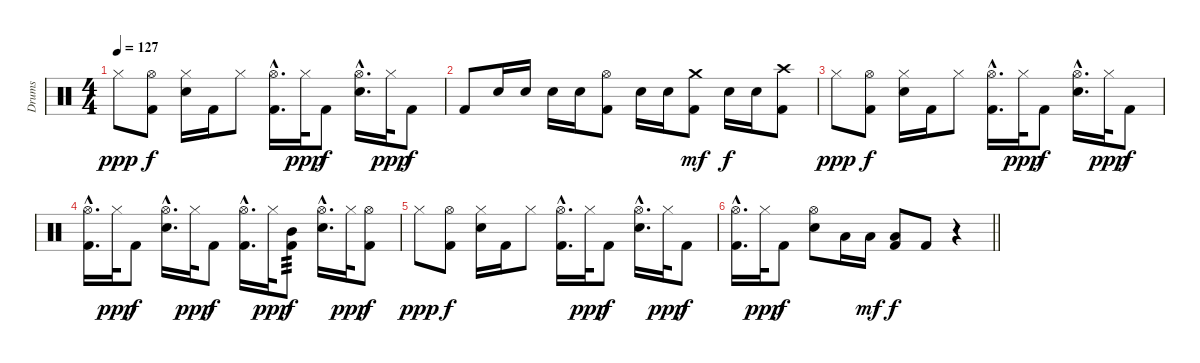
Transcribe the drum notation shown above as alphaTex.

\track ("Drums" "Drums") {instrument percussion}
\staff {score}
\articulation defaults
\ts (4 4)
\tempo 127
\clef neutral
\ks c "Hi-Hat (closed)".8{dy ppp}
("Hi-Hat (open)" "Kick (hit) 2").8{dy f} ("Hi-Hat (closed)" "Electric Snare (hit)").16 "Kick (hit) 2".16 "Hi-Hat (closed)".8 ("Hi-Hat (open)"{hac} "Kick (hit) 2"{hac}).16{d} "Hi-Hat (closed)".32{dy ppp} "Kick (hit) 2".8{dy f} ("Hi-Hat (open)"{hac} "Electric Snare (hit)"{hac}).16{d} "Hi-Hat (closed)".32{dy ppp} "Kick (hit) 2".8{dy f} |
"Kick (hit) 2".8 "Electric Snare (hit)".16 "Electric Snare (hit)".16 "Electric Snare (hit)".16 "Electric Snare (hit)".16 ("Hi-Hat (open)" "Kick (hit) 2").8 "Electric Snare (hit)".16 "Electric Snare (hit)".16 ("Crash medium (hit)" "Kick (hit) 2").8{dy mf} "Electric Snare (hit)".16{dy f} "Electric Snare (hit)".16 ("Crash high (hit)" "Kick (hit) 2").8 |
"Hi-Hat (closed)".8{dy ppp} ("Hi-Hat (open)" "Kick (hit) 2").8{dy f} ("Hi-Hat (closed)" "Electric Snare (hit)").16 "Kick (hit) 2".16 "Hi-Hat (closed)".8 ("Hi-Hat (open)"{hac} "Kick (hit) 2"{hac}).16{d} "Hi-Hat (closed)".32{dy ppp} "Kick (hit) 2".8{dy f} ("Hi-Hat (open)"{hac} "Electric Snare (hit)"{hac}).16{d} "Hi-Hat (closed)".32{dy ppp} "Kick (hit) 2".8{dy f} |
("Hi-Hat (open)"{hac} "Kick (hit) 2"{hac}).16{d} "Hi-Hat (closed)".32{dy ppp} "Kick (hit) 2".8{dy f} ("Hi-Hat (open)"{hac} "Electric Snare (hit)"{hac}).16{d} "Hi-Hat (closed)".32{dy ppp} "Kick (hit) 2".8{dy f} ("Hi-Hat (open)"{hac} "Kick (hit) 2"{hac}).16{d} "Hi-Hat (closed)".32{dy ppp} ("Mid Tom (hit)" "Kick (hit) 2").8{tp 3 dy f} ("Hi-Hat (open)"{hac} "Electric Snare (hit)"{hac}).16{d} "Hi-Hat (closed)".32{dy ppp} ("Hi-Hat (open)" "Kick (hit) 2").8{dy f} |
"Hi-Hat (closed)".8{dy ppp} ("Hi-Hat (open)" "Kick (hit) 2").8{dy f} ("Hi-Hat (closed)" "Electric Snare (hit)").16 "Kick (hit) 2".16 "Hi-Hat (closed)".8 ("Hi-Hat (open)"{hac} "Kick (hit) 2"{hac}).16{d} "Hi-Hat (closed)".32{dy ppp} "Kick (hit) 2".8{dy f} ("Hi-Hat (open)"{hac} "Electric Snare (hit)"{hac}).16{d} "Hi-Hat (closed)".32{dy ppp} "Kick (hit) 2".8{dy f} |
\barLineRight lightlight
("Hi-Hat (open)"{hac} "Kick (hit) 2"{hac}).16{d} "Hi-Hat (closed)".32{dy ppp} "Kick (hit) 2".8{dy f} ("Hi-Hat (open)" "Electric Snare (hit)").8 "Low Floor Tom (hit)".16 "Low Floor Tom (hit)".16{dy mf} ("Low Floor Tom (hit)" "Kick (hit) 2").8{dy f} "Kick (hit) 2".8 r.4
